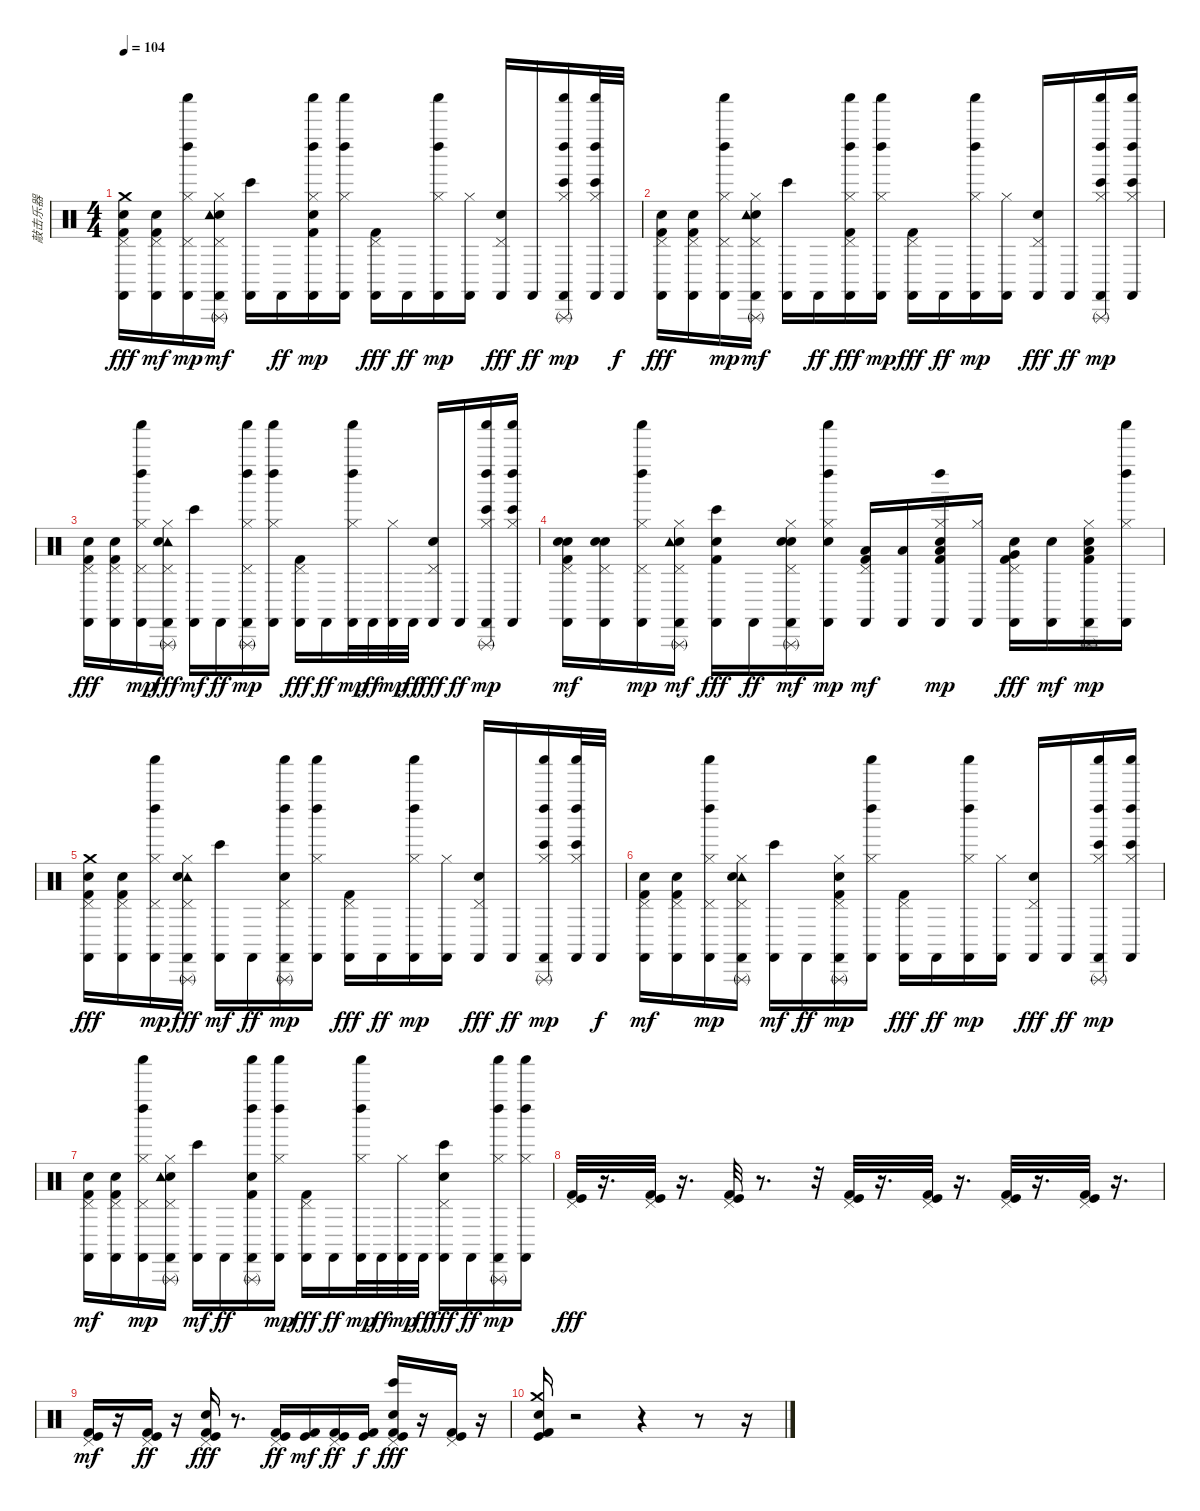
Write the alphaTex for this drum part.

\track ("敲击乐器" "敲击乐器") {instrument percussion}
\staff {score}
\articulation defaults
\ts (4 4)
\tempo 104
\clef neutral
\ks c
("Castanets (hit)" "Kick (hit) 2" "Hand Clap (hit)" "Pedal Hi-Hat (hit)" "Crash medium (hit)").16{dy fff} ("Castanets (hit)" "Kick (hit) 2" "Hand Clap (hit)" "Pedal Hi-Hat (hit)").16{dy mf} ("Castanets (hit)" "Hi-Hat (closed)" "Left Maraca (hit)" "Shaker (hit)" "Pedal Hi-Hat (hit)").16{dy mp} ("Castanets (hit)" "Snare (hit) 2" "Hi-Hat (closed)" "Triangle (rnute)" "Tambourine (hit)" "Pedal Hi-Hat (hit)").16{dy mf} ("Castanets (hit)" "Bongo High (hit)").16 "Castanets (hit)".16{dy ff} ("Castanets (hit)" "Kick (hit) 2" "Hi-Hat (closed)" "Hand Clap (hit)" "Shaker (hit)" "Left Maraca (hit)").16{dy mp} ("Castanets (hit)" "Hi-Hat (closed)" "Shaker (hit)" "Left Maraca (hit)").16 ("Castanets (hit)" "Kick (hit) 2" "Pedal Hi-Hat (hit)").16{dy fff} "Castanets (hit)".16{dy ff} ("Castanets (hit)" "Hi-Hat (closed)" "Shaker (hit)" "Left Maraca (hit)").16{dy mp} ("Castanets (hit)" "Hi-Hat (closed)").16 ("Castanets (hit)" "Snare (hit) 2" "Pedal Hi-Hat (hit)").16{dy fff} "Castanets (hit)".16{dy ff} ("Castanets (hit)" "Bongo High (hit)" "Hi-Hat (closed)" "Shaker (hit)" "Left Maraca (hit)" "Triangle (rnute)").16{dy mp} ("Castanets (hit)" "Bongo High (hit)" "Hi-Hat (closed)" "Shaker (hit)" "Left Maraca (hit)").32 "Castanets (hit)".32{dy f} |
("Castanets (hit)" "Hand Clap (hit)" "Kick (hit) 2" "Pedal Hi-Hat (hit)").16{dy fff} ("Castanets (hit)" "Hand Clap (hit)" "Kick (hit) 2" "Pedal Hi-Hat (hit)").16 ("Castanets (hit)" "Left Maraca (hit)" "Shaker (hit)" "Hi-Hat (closed)" "Pedal Hi-Hat (hit)").16{dy mp} ("Castanets (hit)" "Hi-Hat (closed)" "Snare (hit) 2" "Tambourine (hit)" "Pedal Hi-Hat (hit)" "Triangle (rnute)").16{dy mf} ("Castanets (hit)" "Bongo High (hit)").16 "Castanets (hit)".16{dy ff} ("Castanets (hit)" "Shaker (hit)" "Left Maraca (hit)" "Hi-Hat (closed)" "Kick (hit) 2" "Pedal Hi-Hat (hit)").16{dy fff} ("Castanets (hit)" "Shaker (hit)" "Left Maraca (hit)" "Hi-Hat (closed)").16{dy mp} ("Castanets (hit)" "Kick (hit) 2" "Pedal Hi-Hat (hit)").16{dy fff} "Castanets (hit)".16{dy ff} ("Castanets (hit)" "Shaker (hit)" "Left Maraca (hit)" "Hi-Hat (closed)").16{dy mp} ("Castanets (hit)" "Hi-Hat (closed)").16 ("Castanets (hit)" "Snare (hit) 2" "Pedal Hi-Hat (hit)").16{dy fff} "Castanets (hit)".16{dy ff} ("Castanets (hit)" "Bongo High (hit)" "Shaker (hit)" "Left Maraca (hit)" "Hi-Hat (closed)" "Triangle (rnute)").16{dy mp} ("Castanets (hit)" "Bongo High (hit)" "Shaker (hit)" "Left Maraca (hit)" "Hi-Hat (closed)").16 |
("Castanets (hit)" "Pedal Hi-Hat (hit)" "Hand Clap (hit)" "Kick (hit) 2").16{dy fff} ("Castanets (hit)" "Pedal Hi-Hat (hit)" "Hand Clap (hit)" "Kick (hit) 2").16 ("Castanets (hit)" "Hi-Hat (closed)" "Pedal Hi-Hat (hit)" "Shaker (hit)" "Left Maraca (hit)").16{dy mp} ("Castanets (hit)" "Hi-Hat (closed)" "Pedal Hi-Hat (hit)" "Tambourine (hit)" "Triangle (rnute)" "Snare (hit) 2").16{dy fff} ("Castanets (hit)" "Bongo High (hit)").16{dy mf} "Castanets (hit)".16{dy ff} ("Castanets (hit)" "Hi-Hat (closed)" "Pedal Hi-Hat (hit)" "Triangle (rnute)" "Left Maraca (hit)" "Shaker (hit)").16{dy mp} ("Castanets (hit)" "Hi-Hat (closed)" "Left Maraca (hit)" "Shaker (hit)").16 ("Castanets (hit)" "Pedal Hi-Hat (hit)" "Kick (hit) 2").16{dy fff} "Castanets (hit)".16{dy ff} ("Castanets (hit)" "Hi-Hat (closed)" "Left Maraca (hit)" "Shaker (hit)").32{dy mp} "Castanets (hit)".32{dy ff} ("Castanets (hit)" "Hi-Hat (closed)").32{dy mp} "Castanets (hit)".32{dy ff} ("Castanets (hit)" "Pedal Hi-Hat (hit)" "Snare (hit) 2").16{dy fff} "Castanets (hit)".16{dy ff} ("Castanets (hit)" "Bongo High (hit)" "Hi-Hat (closed)" "Triangle (rnute)" "Left Maraca (hit)" "Shaker (hit)").16{dy mp} ("Castanets (hit)" "Bongo High (hit)" "Hi-Hat (closed)" "Left Maraca (hit)" "Shaker (hit)").16 |
("Castanets (hit)" "Hand Clap (hit)" "Pedal Hi-Hat (hit)" "Kick (hit) 2" "Hand Clap (hit)").16{dy mf} ("Castanets (hit)" "Hand Clap (hit)" "Pedal Hi-Hat (hit)" "Hand Clap (hit)").16 ("Castanets (hit)" "Hi-Hat (closed)" "Pedal Hi-Hat (hit)" "Shaker (hit)" "Left Maraca (hit)").16{dy mp} ("Castanets (hit)" "Hand Clap (hit)" "Hi-Hat (closed)" "Triangle (rnute)" "Pedal Hi-Hat (hit)" "Tambourine (hit)").16{dy mf} ("Castanets (hit)" "Snare (hit) 2" "Bongo High (hit)" "Kick (hit) 2").16{dy fff} "Castanets (hit)".16{dy ff} ("Castanets (hit)" "Hand Clap (hit)" "Hi-Hat (closed)" "Triangle (rnute)" "Hand Clap (hit)" "Pedal Hi-Hat (hit)").16{dy mf} ("Castanets (hit)" "Hand Clap (hit)" "Hi-Hat (closed)" "Left Maraca (hit)" "Shaker (hit)").16{dy mp} ("Castanets (hit)" "Kick (hit) 2" "Pedal Hi-Hat (hit)" "Low Tom (hit)").16{dy mf} ("Castanets (hit)" "Low Tom (hit)").16 ("Castanets (hit)" "Hand Clap (hit)" "Low Tom (hit)" "Kick (hit) 2" "Hi-Hat (closed)" "Left Maraca (hit)").16{dy mp} ("Castanets (hit)" "Hi-Hat (closed)").16 ("Castanets (hit)" "Very Low Tom (hit)" "Snare (hit) 2" "Pedal Hi-Hat (hit)" "Kick (hit) 2").16{dy fff} ("Castanets (hit)" "Hand Clap (hit)").16{dy mf} ("Castanets (hit)" "Hand Clap (hit)" "Low Floor Tom (hit)" "Kick (hit) 2" "Hi-Hat (closed)" "Triangle (rnute)").16{dy mp} ("Castanets (hit)" "Hi-Hat (closed)" "Left Maraca (hit)" "Shaker (hit)").16 |
("Castanets (hit)" "Crash medium (hit)" "Pedal Hi-Hat (hit)" "Hand Clap (hit)" "Kick (hit) 2").16{dy fff} ("Castanets (hit)" "Pedal Hi-Hat (hit)" "Hand Clap (hit)" "Kick (hit) 2").16 ("Castanets (hit)" "Pedal Hi-Hat (hit)" "Shaker (hit)" "Left Maraca (hit)" "Hi-Hat (closed)").16{dy mp} ("Castanets (hit)" "Pedal Hi-Hat (hit)" "Tambourine (hit)" "Triangle (rnute)" "Hi-Hat (closed)" "Snare (hit) 2").16{dy fff} ("Castanets (hit)" "Bongo High (hit)").16{dy mf} "Castanets (hit)".16{dy ff} ("Castanets (hit)" "Pedal Hi-Hat (hit)" "Triangle (rnute)" "Left Maraca (hit)" "Shaker (hit)" "Hand Clap (hit)").16{dy mp} ("Castanets (hit)" "Left Maraca (hit)" "Shaker (hit)" "Hi-Hat (closed)").16 ("Castanets (hit)" "Pedal Hi-Hat (hit)" "Kick (hit) 2").16{dy fff} "Castanets (hit)".16{dy ff} ("Castanets (hit)" "Left Maraca (hit)" "Shaker (hit)" "Hi-Hat (closed)").16{dy mp} ("Castanets (hit)" "Hi-Hat (closed)").16 ("Castanets (hit)" "Pedal Hi-Hat (hit)" "Snare (hit) 2").16{dy fff} "Castanets (hit)".16{dy ff} ("Castanets (hit)" "Triangle (rnute)" "Left Maraca (hit)" "Shaker (hit)" "Hi-Hat (closed)" "Bongo High (hit)").16{dy mp} ("Castanets (hit)" "Left Maraca (hit)" "Shaker (hit)" "Hi-Hat (closed)" "Bongo High (hit)").32 "Castanets (hit)".32{dy f} |
("Castanets (hit)" "Pedal Hi-Hat (hit)" "Kick (hit) 2" "Hand Clap (hit)").16{dy mf} ("Castanets (hit)" "Pedal Hi-Hat (hit)" "Kick (hit) 2" "Hand Clap (hit)").16 ("Castanets (hit)" "Pedal Hi-Hat (hit)" "Hi-Hat (closed)" "Shaker (hit)" "Left Maraca (hit)").16{dy mp} ("Castanets (hit)" "Triangle (rnute)" "Pedal Hi-Hat (hit)" "Tambourine (hit)" "Snare (hit) 2" "Hi-Hat (closed)").16 ("Castanets (hit)" "Bongo High (hit)").16{dy mf} "Castanets (hit)".16{dy ff} ("Castanets (hit)" "Triangle (rnute)" "Hand Clap (hit)" "Pedal Hi-Hat (hit)" "Kick (hit) 2" "Hi-Hat (closed)").16{dy mp} ("Castanets (hit)" "Hi-Hat (closed)" "Left Maraca (hit)" "Shaker (hit)").16 ("Castanets (hit)" "Pedal Hi-Hat (hit)" "Kick (hit) 2").16{dy fff} "Castanets (hit)".16{dy ff} ("Castanets (hit)" "Hi-Hat (closed)" "Left Maraca (hit)" "Shaker (hit)").16{dy mp} ("Castanets (hit)" "Hi-Hat (closed)").16 ("Castanets (hit)" "Pedal Hi-Hat (hit)" "Snare (hit) 2").16{dy fff} "Castanets (hit)".16{dy ff} ("Castanets (hit)" "Triangle (rnute)" "Hi-Hat (closed)" "Left Maraca (hit)" "Shaker (hit)" "Bongo High (hit)").16{dy mp} ("Castanets (hit)" "Hi-Hat (closed)" "Left Maraca (hit)" "Shaker (hit)" "Bongo High (hit)").16 |
("Castanets (hit)" "Kick (hit) 2" "Hand Clap (hit)" "Pedal Hi-Hat (hit)").16{dy mf} ("Castanets (hit)" "Kick (hit) 2" "Hand Clap (hit)" "Pedal Hi-Hat (hit)").16 ("Castanets (hit)" "Left Maraca (hit)" "Shaker (hit)" "Pedal Hi-Hat (hit)" "Hi-Hat (closed)").16{dy mp} ("Castanets (hit)" "Snare (hit) 2" "Triangle (rnute)" "Tambourine (hit)" "Pedal Hi-Hat (hit)" "Hi-Hat (closed)").16 ("Castanets (hit)" "Bongo High (hit)").16{dy mf} "Castanets (hit)".16{dy ff} ("Castanets (hit)" "Kick (hit) 2" "Hand Clap (hit)" "Shaker (hit)" "Left Maraca (hit)" "Triangle (rnute)").16 ("Castanets (hit)" "Shaker (hit)" "Left Maraca (hit)" "Hi-Hat (closed)").16{dy mp} ("Castanets (hit)" "Kick (hit) 2" "Pedal Hi-Hat (hit)").16{dy fff} "Castanets (hit)".16{dy ff} ("Castanets (hit)" "Shaker (hit)" "Left Maraca (hit)" "Hi-Hat (closed)").32{dy mp} "Castanets (hit)".32{dy ff} ("Castanets (hit)" "Hi-Hat (closed)").32{dy mp} "Castanets (hit)".32{dy ff} ("Bongo High (hit)" "Castanets (hit)" "Snare (hit) 2" "Pedal Hi-Hat (hit)").16{dy fff} "Castanets (hit)".16{dy ff} ("Castanets (hit)" "Shaker (hit)" "Left Maraca (hit)" "Triangle (rnute)" "Hi-Hat (closed)").16{dy mp} ("Castanets (hit)" "Shaker (hit)" "Left Maraca (hit)" "Hi-Hat (closed)").16 |
("Pedal Hi-Hat (hit)" "Kick (hit)" "Kick (hit) 2").32{dy fff} r.16{d} ("Pedal Hi-Hat (hit)" "Kick (hit)" "Kick (hit) 2").32 r.16{d} ("Pedal Hi-Hat (hit)" "Kick (hit)" "Kick (hit) 2").32 r.8{d} r.32 ("Pedal Hi-Hat (hit)" "Kick (hit)" "Kick (hit) 2").32 r.16{d} ("Pedal Hi-Hat (hit)" "Kick (hit)" "Kick (hit) 2").32 r.16{d} ("Pedal Hi-Hat (hit)" "Kick (hit)" "Kick (hit) 2").32 r.16{d} ("Pedal Hi-Hat (hit)" "Kick (hit)" "Kick (hit) 2").32 r.16{d} |
("Kick (hit)" "Pedal Hi-Hat (hit)" "Kick (hit) 2").16{dy mf} r.16 ("Kick (hit)" "Pedal Hi-Hat (hit)" "Kick (hit) 2").16{dy ff} r.16 ("Kick (hit)" "Pedal Hi-Hat (hit)" "Kick (hit) 2" "Snare (hit) 2").16{dy fff} r.8{d} ("Kick (hit)" "Pedal Hi-Hat (hit)" "Kick (hit) 2").16{dy ff} ("Kick (hit)" "Kick (hit) 2").16{dy mf} ("Kick (hit)" "Pedal Hi-Hat (hit)" "Kick (hit) 2").16{dy ff} ("Kick (hit)" "Kick (hit) 2").16{dy f} ("Kick (hit)" "Pedal Hi-Hat (hit)" "Snare (hit) 2" "Kick (hit) 2" "Bongo High (hit)").16{dy fff} r.16 ("Kick (hit)" "Pedal Hi-Hat (hit)" "Kick (hit) 2").16 r.16 |
("Crash medium (hit)" "Snare (hit) 2" "Kick (hit)" "Kick (hit) 2").16 r.2 r.4 r.8 r.16
